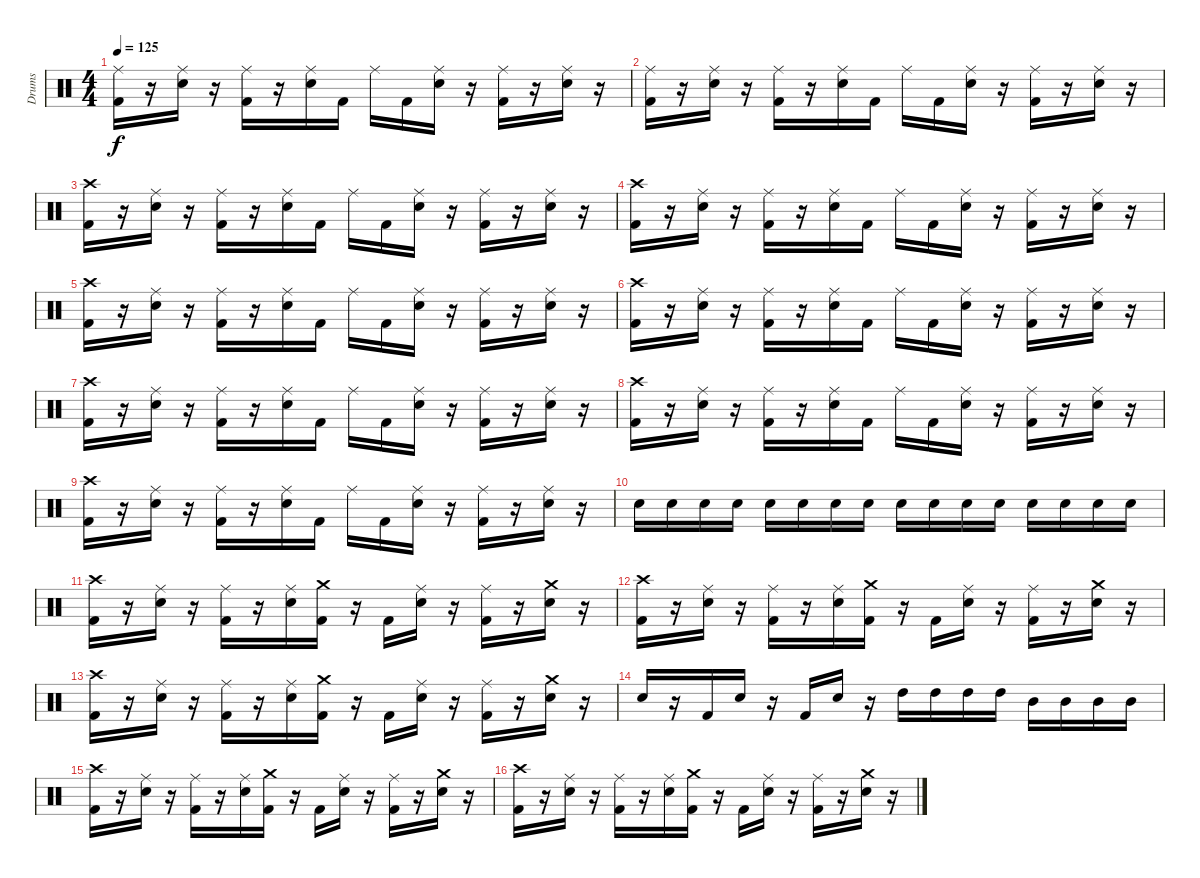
\track ("Drums" "Drums") {instrument percussion}
\staff {score}
\articulation defaults
\ts (4 4)
\tempo 125
\clef neutral
\ks c
("Ride (middle)" "Kick (hit) 2").16{dy f} r.16 ("Ride (middle)" "Electric Snare (hit)").16 r.16 ("Ride (middle)" "Kick (hit) 2").16 r.16 ("Ride (middle)" "Electric Snare (hit)").16 "Kick (hit) 2".16 "Ride (middle)".16 "Kick (hit) 2".16 ("Ride (middle)" "Electric Snare (hit)").16 r.16 ("Ride (middle)" "Kick (hit) 2").16 r.16 ("Ride (middle)" "Electric Snare (hit)").16 r.16 |
("Ride (middle)" "Kick (hit) 2").16 r.16 ("Ride (middle)" "Electric Snare (hit)").16 r.16 ("Ride (middle)" "Kick (hit) 2").16 r.16 ("Ride (middle)" "Electric Snare (hit)").16 "Kick (hit) 2".16 "Ride (middle)".16 "Kick (hit) 2".16 ("Ride (middle)" "Electric Snare (hit)").16 r.16 ("Ride (middle)" "Kick (hit) 2").16 r.16 ("Ride (middle)" "Electric Snare (hit)").16 r.16 |
("Crash high (hit)" "Kick (hit) 2").16 r.16 ("Ride (middle)" "Electric Snare (hit)").16 r.16 ("Ride (middle)" "Kick (hit) 2").16 r.16 ("Ride (middle)" "Electric Snare (hit)").16 "Kick (hit) 2".16 "Ride (middle)".16 "Kick (hit) 2".16 ("Ride (middle)" "Electric Snare (hit)").16 r.16 ("Ride (middle)" "Kick (hit) 2").16 r.16 ("Ride (middle)" "Electric Snare (hit)").16 r.16 |
("Crash high (hit)" "Kick (hit) 2").16 r.16 ("Ride (middle)" "Electric Snare (hit)").16 r.16 ("Ride (middle)" "Kick (hit) 2").16 r.16 ("Ride (middle)" "Electric Snare (hit)").16 "Kick (hit) 2".16 "Ride (middle)".16 "Kick (hit) 2".16 ("Ride (middle)" "Electric Snare (hit)").16 r.16 ("Ride (middle)" "Kick (hit) 2").16 r.16 ("Ride (middle)" "Electric Snare (hit)").16 r.16 |
("Crash high (hit)" "Kick (hit) 2").16 r.16 ("Ride (middle)" "Electric Snare (hit)").16 r.16 ("Ride (middle)" "Kick (hit) 2").16 r.16 ("Ride (middle)" "Electric Snare (hit)").16 "Kick (hit) 2".16 "Ride (middle)".16 "Kick (hit) 2".16 ("Ride (middle)" "Electric Snare (hit)").16 r.16 ("Ride (middle)" "Kick (hit) 2").16 r.16 ("Ride (middle)" "Electric Snare (hit)").16 r.16 |
("Crash high (hit)" "Kick (hit) 2").16 r.16 ("Ride (middle)" "Electric Snare (hit)").16 r.16 ("Ride (middle)" "Kick (hit) 2").16 r.16 ("Ride (middle)" "Electric Snare (hit)").16 "Kick (hit) 2".16 "Ride (middle)".16 "Kick (hit) 2".16 ("Ride (middle)" "Electric Snare (hit)").16 r.16 ("Ride (middle)" "Kick (hit) 2").16 r.16 ("Ride (middle)" "Electric Snare (hit)").16 r.16 |
("Crash high (hit)" "Kick (hit) 2").16 r.16 ("Ride (middle)" "Electric Snare (hit)").16 r.16 ("Ride (middle)" "Kick (hit) 2").16 r.16 ("Ride (middle)" "Electric Snare (hit)").16 "Kick (hit) 2".16 "Ride (middle)".16 "Kick (hit) 2".16 ("Ride (middle)" "Electric Snare (hit)").16 r.16 ("Ride (middle)" "Kick (hit) 2").16 r.16 ("Ride (middle)" "Electric Snare (hit)").16 r.16 |
("Crash high (hit)" "Kick (hit) 2").16 r.16 ("Ride (middle)" "Electric Snare (hit)").16 r.16 ("Ride (middle)" "Kick (hit) 2").16 r.16 ("Ride (middle)" "Electric Snare (hit)").16 "Kick (hit) 2".16 "Ride (middle)".16 "Kick (hit) 2".16 ("Ride (middle)" "Electric Snare (hit)").16 r.16 ("Ride (middle)" "Kick (hit) 2").16 r.16 ("Ride (middle)" "Electric Snare (hit)").16 r.16 |
("Crash high (hit)" "Kick (hit) 2").16 r.16 ("Ride (middle)" "Electric Snare (hit)").16 r.16 ("Ride (middle)" "Kick (hit) 2").16 r.16 ("Ride (middle)" "Electric Snare (hit)").16 "Kick (hit) 2".16 "Ride (middle)".16 "Kick (hit) 2".16 ("Ride (middle)" "Electric Snare (hit)").16 r.16 ("Ride (middle)" "Kick (hit) 2").16 r.16 ("Ride (middle)" "Electric Snare (hit)").16 r.16 |
"Electric Snare (hit)".16 "Electric Snare (hit)".16 "Electric Snare (hit)".16 "Electric Snare (hit)".16 "Electric Snare (hit)".16 "Electric Snare (hit)".16 "Electric Snare (hit)".16 "Electric Snare (hit)".16 "Electric Snare (hit)".16 "Electric Snare (hit)".16 "Electric Snare (hit)".16 "Electric Snare (hit)".16 "Electric Snare (hit)".16 "Electric Snare (hit)".16 "Electric Snare (hit)".16 "Electric Snare (hit)".16 |
("Crash high (hit)" "Kick (hit) 2").16 r.16 ("Ride (middle)" "Electric Snare (hit)").16 r.16 ("Ride (middle)" "Kick (hit) 2").16 r.16 ("Ride (middle)" "Electric Snare (hit)").16 ("Crash medium (hit)" "Kick (hit) 2").16 r.16 "Kick (hit) 2".16 ("Ride (middle)" "Electric Snare (hit)").16 r.16 ("Ride (middle)" "Kick (hit) 2").16 r.16 ("Crash medium (hit)" "Electric Snare (hit)").16 r.16 |
("Crash high (hit)" "Kick (hit) 2").16 r.16 ("Ride (middle)" "Electric Snare (hit)").16 r.16 ("Ride (middle)" "Kick (hit) 2").16 r.16 ("Ride (middle)" "Electric Snare (hit)").16 ("Crash medium (hit)" "Kick (hit) 2").16 r.16 "Kick (hit) 2".16 ("Ride (middle)" "Electric Snare (hit)").16 r.16 ("Ride (middle)" "Kick (hit) 2").16 r.16 ("Crash medium (hit)" "Electric Snare (hit)").16 r.16 |
("Crash high (hit)" "Kick (hit) 2").16 r.16 ("Ride (middle)" "Electric Snare (hit)").16 r.16 ("Ride (middle)" "Kick (hit) 2").16 r.16 ("Ride (middle)" "Electric Snare (hit)").16 ("Crash medium (hit)" "Kick (hit) 2").16 r.16 "Kick (hit) 2".16 ("Ride (middle)" "Electric Snare (hit)").16 r.16 ("Ride (middle)" "Kick (hit) 2").16 r.16 ("Crash medium (hit)" "Electric Snare (hit)").16 r.16 |
"Electric Snare (hit)".16 r.16 "Kick (hit) 2".16 "Electric Snare (hit)".16 r.16 "Kick (hit) 2".16 "Electric Snare (hit)".16 r.16 "High Tom (hit)".16 "High Tom (hit)".16 "High Tom (hit)".16 "High Tom (hit)".16 "Mid Tom (hit)".16 "Mid Tom (hit)".16 "Mid Tom (hit)".16 "Mid Tom (hit)".16 |
("Crash high (hit)" "Kick (hit) 2").16 r.16 ("Ride (middle)" "Electric Snare (hit)").16 r.16 ("Ride (middle)" "Kick (hit) 2").16 r.16 ("Ride (middle)" "Electric Snare (hit)").16 ("Crash medium (hit)" "Kick (hit) 2").16 r.16 "Kick (hit) 2".16 ("Ride (middle)" "Electric Snare (hit)").16 r.16 ("Ride (middle)" "Kick (hit) 2").16 r.16 ("Crash medium (hit)" "Electric Snare (hit)").16 r.16 |
("Crash high (hit)" "Kick (hit) 2").16 r.16 ("Ride (middle)" "Electric Snare (hit)").16 r.16 ("Ride (middle)" "Kick (hit) 2").16 r.16 ("Ride (middle)" "Electric Snare (hit)").16 ("Crash medium (hit)" "Kick (hit) 2").16 r.16 "Kick (hit) 2".16 ("Ride (middle)" "Electric Snare (hit)").16 r.16 ("Ride (middle)" "Kick (hit) 2").16 r.16 ("Crash medium (hit)" "Electric Snare (hit)").16 r.16
